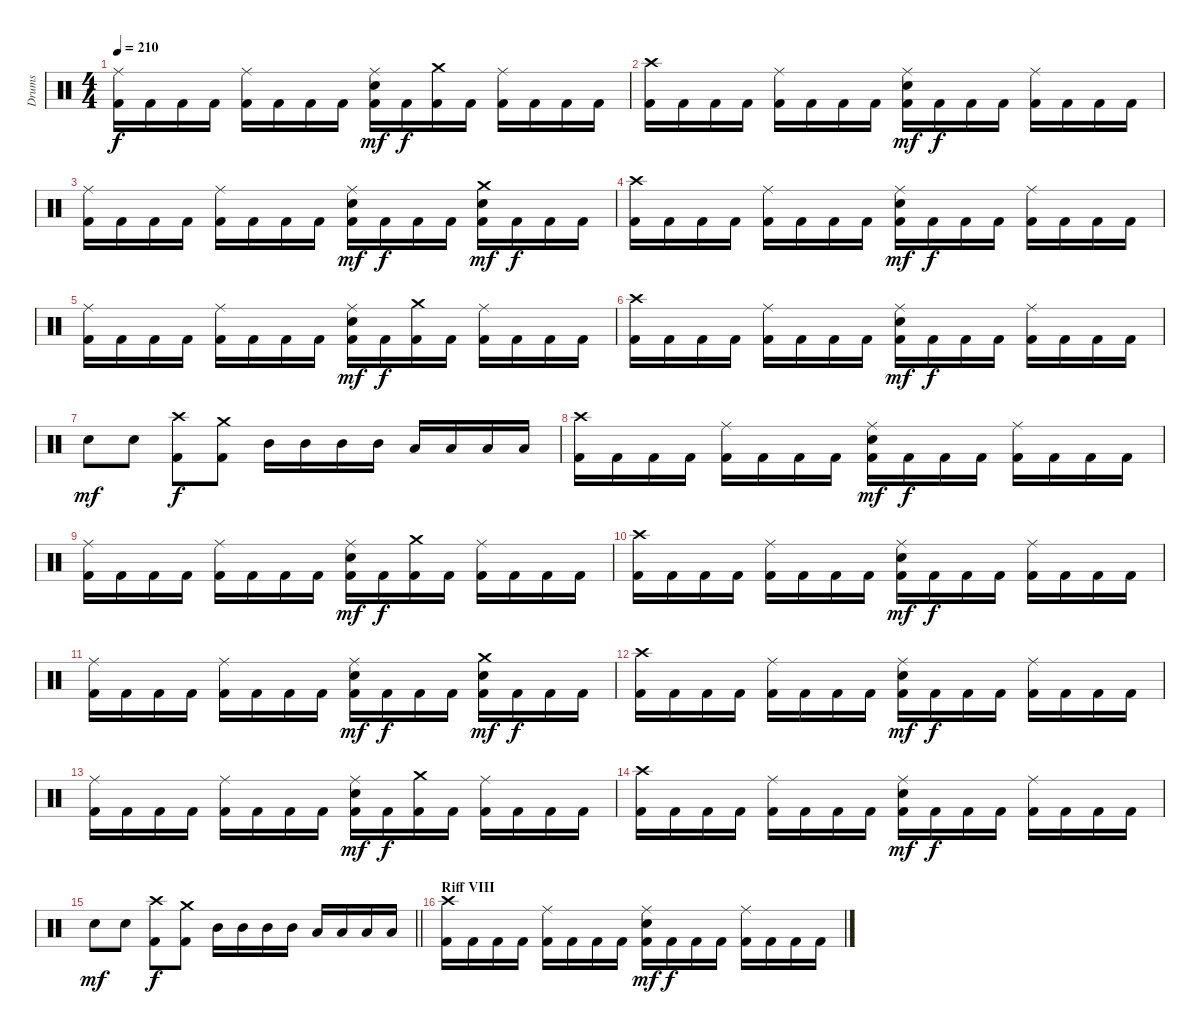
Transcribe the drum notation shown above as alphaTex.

\track ("Drums" "Drums") {instrument percussion}
\staff {score}
\articulation defaults
\ts (4 4)
\tempo 210
\clef neutral
\ks c
("Ride (middle)" "Kick (hit) 2").16{dy f} "Kick (hit) 2".16 "Kick (hit) 2".16 "Kick (hit) 2".16 ("Ride (middle)" "Kick (hit) 2").16 "Kick (hit) 2".16 "Kick (hit) 2".16 "Kick (hit) 2".16 ("Ride (middle)" "Electric Snare (hit)" "Kick (hit) 2").16{dy mf} "Kick (hit) 2".16{dy f} ("Crash medium (hit)" "Kick (hit) 2").16 "Kick (hit) 2".16 ("Ride (middle)" "Kick (hit) 2").16 "Kick (hit) 2".16 "Kick (hit) 2".16 "Kick (hit) 2".16 |
("Crash high (hit)" "Kick (hit) 2").16 "Kick (hit) 2".16 "Kick (hit) 2".16 "Kick (hit) 2".16 ("Ride (middle)" "Kick (hit) 2").16 "Kick (hit) 2".16 "Kick (hit) 2".16 "Kick (hit) 2".16 ("Ride (middle)" "Electric Snare (hit)" "Kick (hit) 2").16{dy mf} "Kick (hit) 2".16{dy f} "Kick (hit) 2".16 "Kick (hit) 2".16 ("Ride (middle)" "Kick (hit) 2").16 "Kick (hit) 2".16 "Kick (hit) 2".16 "Kick (hit) 2".16 |
("Ride (middle)" "Kick (hit) 2").16 "Kick (hit) 2".16 "Kick (hit) 2".16 "Kick (hit) 2".16 ("Ride (middle)" "Kick (hit) 2").16 "Kick (hit) 2".16 "Kick (hit) 2".16 "Kick (hit) 2".16 ("Ride (middle)" "Electric Snare (hit)" "Kick (hit) 2").16{dy mf} "Kick (hit) 2".16{dy f} "Kick (hit) 2".16 "Kick (hit) 2".16 ("Crash medium (hit)" "Electric Snare (hit)" "Kick (hit) 2").16{dy mf} "Kick (hit) 2".16{dy f} "Kick (hit) 2".16 "Kick (hit) 2".16 |
("Crash high (hit)" "Kick (hit) 2").16 "Kick (hit) 2".16 "Kick (hit) 2".16 "Kick (hit) 2".16 ("Ride (middle)" "Kick (hit) 2").16 "Kick (hit) 2".16 "Kick (hit) 2".16 "Kick (hit) 2".16 ("Ride (middle)" "Electric Snare (hit)" "Kick (hit) 2").16{dy mf} "Kick (hit) 2".16{dy f} "Kick (hit) 2".16 "Kick (hit) 2".16 ("Ride (middle)" "Kick (hit) 2").16 "Kick (hit) 2".16 "Kick (hit) 2".16 "Kick (hit) 2".16 |
("Ride (middle)" "Kick (hit) 2").16 "Kick (hit) 2".16 "Kick (hit) 2".16 "Kick (hit) 2".16 ("Ride (middle)" "Kick (hit) 2").16 "Kick (hit) 2".16 "Kick (hit) 2".16 "Kick (hit) 2".16 ("Ride (middle)" "Electric Snare (hit)" "Kick (hit) 2").16{dy mf} "Kick (hit) 2".16{dy f} ("Crash medium (hit)" "Kick (hit) 2").16 "Kick (hit) 2".16 ("Ride (middle)" "Kick (hit) 2").16 "Kick (hit) 2".16 "Kick (hit) 2".16 "Kick (hit) 2".16 |
("Crash high (hit)" "Kick (hit) 2").16 "Kick (hit) 2".16 "Kick (hit) 2".16 "Kick (hit) 2".16 ("Ride (middle)" "Kick (hit) 2").16 "Kick (hit) 2".16 "Kick (hit) 2".16 "Kick (hit) 2".16 ("Ride (middle)" "Electric Snare (hit)" "Kick (hit) 2").16{dy mf} "Kick (hit) 2".16{dy f} "Kick (hit) 2".16 "Kick (hit) 2".16 ("Ride (middle)" "Kick (hit) 2").16 "Kick (hit) 2".16 "Kick (hit) 2".16 "Kick (hit) 2".16 |
"Electric Snare (hit)".8{dy mf} "Electric Snare (hit)".8 ("Crash high (hit)" "Kick (hit) 2").8{dy f} ("Crash medium (hit)" "Kick (hit) 2").8 "Mid Tom (hit)".16 "Mid Tom (hit)".16 "Mid Tom (hit)".16 "Mid Tom (hit)".16 "Low Tom (hit)".16 "Low Tom (hit)".16 "Low Tom (hit)".16 "Low Tom (hit)".16 |
("Crash high (hit)" "Kick (hit) 2").16 "Kick (hit) 2".16 "Kick (hit) 2".16 "Kick (hit) 2".16 ("Ride (middle)" "Kick (hit) 2").16 "Kick (hit) 2".16 "Kick (hit) 2".16 "Kick (hit) 2".16 ("Ride (middle)" "Electric Snare (hit)" "Kick (hit) 2").16{dy mf} "Kick (hit) 2".16{dy f} "Kick (hit) 2".16 "Kick (hit) 2".16 ("Ride (middle)" "Kick (hit) 2").16 "Kick (hit) 2".16 "Kick (hit) 2".16 "Kick (hit) 2".16 |
("Ride (middle)" "Kick (hit) 2").16 "Kick (hit) 2".16 "Kick (hit) 2".16 "Kick (hit) 2".16 ("Ride (middle)" "Kick (hit) 2").16 "Kick (hit) 2".16 "Kick (hit) 2".16 "Kick (hit) 2".16 ("Ride (middle)" "Electric Snare (hit)" "Kick (hit) 2").16{dy mf} "Kick (hit) 2".16{dy f} ("Crash medium (hit)" "Kick (hit) 2").16 "Kick (hit) 2".16 ("Ride (middle)" "Kick (hit) 2").16 "Kick (hit) 2".16 "Kick (hit) 2".16 "Kick (hit) 2".16 |
("Crash high (hit)" "Kick (hit) 2").16 "Kick (hit) 2".16 "Kick (hit) 2".16 "Kick (hit) 2".16 ("Ride (middle)" "Kick (hit) 2").16 "Kick (hit) 2".16 "Kick (hit) 2".16 "Kick (hit) 2".16 ("Ride (middle)" "Electric Snare (hit)" "Kick (hit) 2").16{dy mf} "Kick (hit) 2".16{dy f} "Kick (hit) 2".16 "Kick (hit) 2".16 ("Ride (middle)" "Kick (hit) 2").16 "Kick (hit) 2".16 "Kick (hit) 2".16 "Kick (hit) 2".16 |
("Ride (middle)" "Kick (hit) 2").16 "Kick (hit) 2".16 "Kick (hit) 2".16 "Kick (hit) 2".16 ("Ride (middle)" "Kick (hit) 2").16 "Kick (hit) 2".16 "Kick (hit) 2".16 "Kick (hit) 2".16 ("Ride (middle)" "Electric Snare (hit)" "Kick (hit) 2").16{dy mf} "Kick (hit) 2".16{dy f} "Kick (hit) 2".16 "Kick (hit) 2".16 ("Crash medium (hit)" "Electric Snare (hit)" "Kick (hit) 2").16{dy mf} "Kick (hit) 2".16{dy f} "Kick (hit) 2".16 "Kick (hit) 2".16 |
("Crash high (hit)" "Kick (hit) 2").16 "Kick (hit) 2".16 "Kick (hit) 2".16 "Kick (hit) 2".16 ("Ride (middle)" "Kick (hit) 2").16 "Kick (hit) 2".16 "Kick (hit) 2".16 "Kick (hit) 2".16 ("Ride (middle)" "Electric Snare (hit)" "Kick (hit) 2").16{dy mf} "Kick (hit) 2".16{dy f} "Kick (hit) 2".16 "Kick (hit) 2".16 ("Ride (middle)" "Kick (hit) 2").16 "Kick (hit) 2".16 "Kick (hit) 2".16 "Kick (hit) 2".16 |
("Ride (middle)" "Kick (hit) 2").16 "Kick (hit) 2".16 "Kick (hit) 2".16 "Kick (hit) 2".16 ("Ride (middle)" "Kick (hit) 2").16 "Kick (hit) 2".16 "Kick (hit) 2".16 "Kick (hit) 2".16 ("Ride (middle)" "Electric Snare (hit)" "Kick (hit) 2").16{dy mf} "Kick (hit) 2".16{dy f} ("Crash medium (hit)" "Kick (hit) 2").16 "Kick (hit) 2".16 ("Ride (middle)" "Kick (hit) 2").16 "Kick (hit) 2".16 "Kick (hit) 2".16 "Kick (hit) 2".16 |
("Crash high (hit)" "Kick (hit) 2").16 "Kick (hit) 2".16 "Kick (hit) 2".16 "Kick (hit) 2".16 ("Ride (middle)" "Kick (hit) 2").16 "Kick (hit) 2".16 "Kick (hit) 2".16 "Kick (hit) 2".16 ("Ride (middle)" "Electric Snare (hit)" "Kick (hit) 2").16{dy mf} "Kick (hit) 2".16{dy f} "Kick (hit) 2".16 "Kick (hit) 2".16 ("Ride (middle)" "Kick (hit) 2").16 "Kick (hit) 2".16 "Kick (hit) 2".16 "Kick (hit) 2".16 |
\barLineRight lightlight "Electric Snare (hit)".8{dy mf} "Electric Snare (hit)".8
("Crash high (hit)" "Kick (hit) 2").8{dy f} ("Crash medium (hit)" "Kick (hit) 2").8 "Mid Tom (hit)".16 "Mid Tom (hit)".16 "Mid Tom (hit)".16 "Mid Tom (hit)".16 "Low Tom (hit)".16 "Low Tom (hit)".16 "Low Tom (hit)".16 "Low Tom (hit)".16 |
\section ("" "Riff VIII")
("Crash high (hit)" "Kick (hit) 2").16 "Kick (hit) 2".16 "Kick (hit) 2".16 "Kick (hit) 2".16 ("Ride (middle)" "Kick (hit) 2").16 "Kick (hit) 2".16 "Kick (hit) 2".16 "Kick (hit) 2".16 ("Ride (middle)" "Electric Snare (hit)" "Kick (hit) 2").16{dy mf} "Kick (hit) 2".16{dy f} "Kick (hit) 2".16 "Kick (hit) 2".16 ("Ride (middle)" "Kick (hit) 2").16 "Kick (hit) 2".16 "Kick (hit) 2".16 "Kick (hit) 2".16
